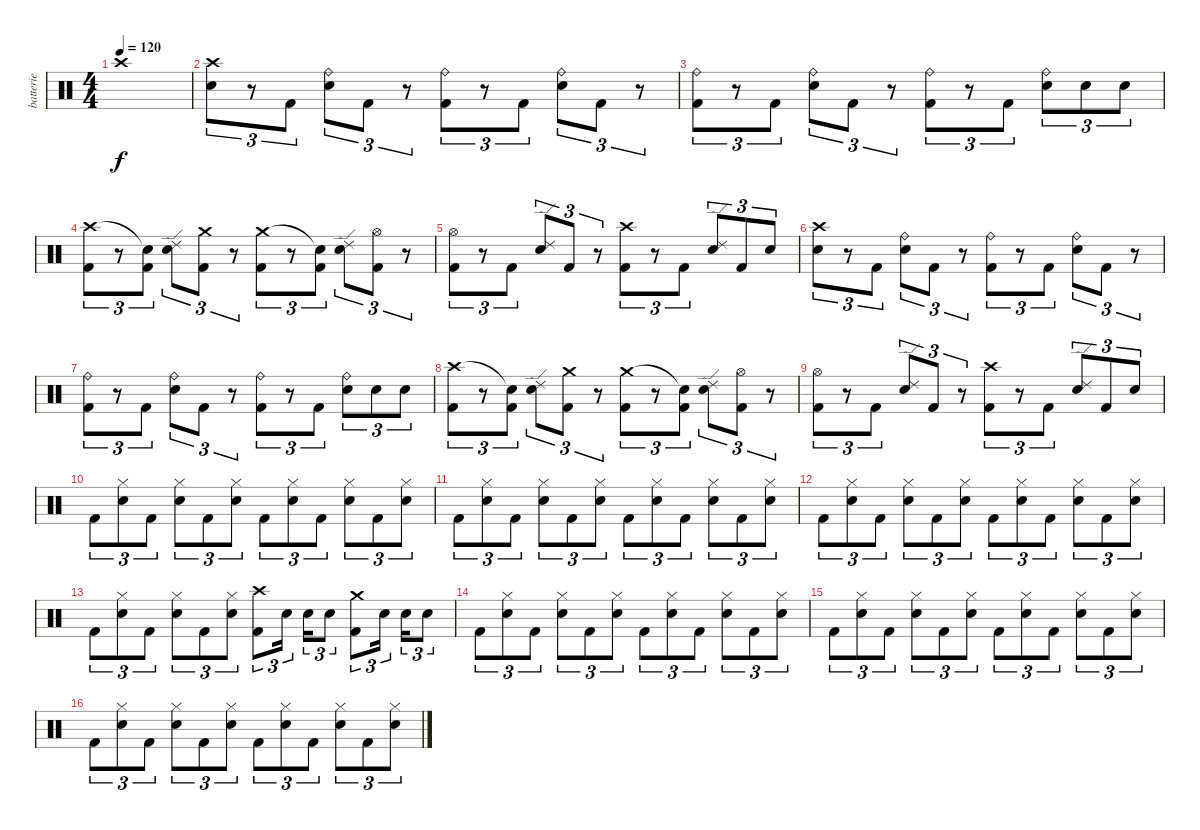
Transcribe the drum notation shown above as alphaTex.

\track ("batterie" "batterie") {instrument percussion}
\staff {score}
\articulation defaults
\ts (4 4)
\tempo 120
\clef neutral
\ks c "Crash high (hit)".1{dy f}
|
("Crash high (hit)" "Snare (hit) 2").8{tu (3 2)} r.8{tu (3 2)} "Kick (hit) 2".8{tu (3 2)} ("Snare (hit) 2" "Ride (bell)").8{tu (3 2)} "Kick (hit) 2".8{tu (3 2)} r.8{tu (3 2)} ("Kick (hit) 2" "Ride (bell)").8{tu (3 2)} r.8{tu (3 2)} "Kick (hit) 2".8{tu (3 2)} ("Snare (hit) 2" "Ride (bell)").8{tu (3 2)} "Kick (hit) 2".8{tu (3 2)} r.8{tu (3 2)} |
("Kick (hit) 2" "Ride (bell)").8{tu (3 2)} r.8{tu (3 2)} "Kick (hit) 2".8{tu (3 2)} ("Snare (hit) 2" "Ride (bell)").8{tu (3 2)} "Kick (hit) 2".8{tu (3 2)} r.8{tu (3 2)} ("Kick (hit) 2" "Ride (bell)").8{tu (3 2)} r.8{tu (3 2)} "Kick (hit) 2".8{tu (3 2)} ("Snare (hit) 2" "Ride (bell)").8{tu (3 2)} "Snare (hit) 2".8{tu (3 2)} "Snare (hit) 2".8{tu (3 2)} |
("Crash high (hit)" "Kick (hit) 2").8{tu (3 2)} r.8{tu (3 2)} ("Snare (hit)"{t} "Kick (hit) 2").8{tu (3 2)} ("Snare (hit) 2" "Ride (edge) 2").8{tu (3 2)} ("Crash medium (hit)" "Kick (hit) 2").8{tu (3 2)} r.8{tu (3 2)} ("Crash medium (hit)" "Kick (hit) 2").8{tu (3 2)} r.8{tu (3 2)} ("Snare (hit)"{t} "Kick (hit) 2").8{tu (3 2)} ("Snare (hit) 2" "Ride (edge) 2").8{tu (3 2)} ("Kick (hit) 2" "Hi-Hat (open)").8{tu (3 2)} r.8{tu (3 2)} |
("Kick (hit) 2" "Hi-Hat (open)").8{tu (3 2)} r.8{tu (3 2)} "Kick (hit) 2".8{tu (3 2)} ("Snare (hit) 2" "Ride (edge) 2").8{tu (3 2)} "Kick (hit) 2".8{tu (3 2)} r.8{tu (3 2)} ("Kick (hit) 2" "Crash high (hit)").8{tu (3 2)} r.8{tu (3 2)} "Kick (hit) 2".8{tu (3 2)} ("Snare (hit) 2" "Ride (edge) 2").8{tu (3 2)} "Kick (hit) 2".8{tu (3 2)} "Snare (hit) 2".8{tu (3 2)} |
("Crash high (hit)" "Snare (hit) 2").8{tu (3 2)} r.8{tu (3 2)} "Kick (hit) 2".8{tu (3 2)} ("Snare (hit) 2" "Ride (bell)").8{tu (3 2)} "Kick (hit) 2".8{tu (3 2)} r.8{tu (3 2)} ("Kick (hit) 2" "Ride (bell)").8{tu (3 2)} r.8{tu (3 2)} "Kick (hit) 2".8{tu (3 2)} ("Snare (hit) 2" "Ride (bell)").8{tu (3 2)} "Kick (hit) 2".8{tu (3 2)} r.8{tu (3 2)} |
("Kick (hit) 2" "Ride (bell)").8{tu (3 2)} r.8{tu (3 2)} "Kick (hit) 2".8{tu (3 2)} ("Snare (hit) 2" "Ride (bell)").8{tu (3 2)} "Kick (hit) 2".8{tu (3 2)} r.8{tu (3 2)} ("Kick (hit) 2" "Ride (bell)").8{tu (3 2)} r.8{tu (3 2)} "Kick (hit) 2".8{tu (3 2)} ("Snare (hit) 2" "Ride (bell)").8{tu (3 2)} "Snare (hit) 2".8{tu (3 2)} "Snare (hit) 2".8{tu (3 2)} |
("Crash high (hit)" "Kick (hit) 2").8{tu (3 2)} r.8{tu (3 2)} ("Snare (hit)"{t} "Kick (hit) 2").8{tu (3 2)} ("Snare (hit) 2" "Ride (edge) 2").8{tu (3 2)} ("Crash medium (hit)" "Kick (hit) 2").8{tu (3 2)} r.8{tu (3 2)} ("Crash medium (hit)" "Kick (hit) 2").8{tu (3 2)} r.8{tu (3 2)} ("Snare (hit)"{t} "Kick (hit) 2").8{tu (3 2)} ("Snare (hit) 2" "Ride (edge) 2").8{tu (3 2)} ("Kick (hit) 2" "Hi-Hat (open)").8{tu (3 2)} r.8{tu (3 2)} |
("Kick (hit) 2" "Hi-Hat (open)").8{tu (3 2)} r.8{tu (3 2)} "Kick (hit) 2".8{tu (3 2)} ("Snare (hit) 2" "Ride (edge) 2").8{tu (3 2)} "Kick (hit) 2".8{tu (3 2)} r.8{tu (3 2)} ("Kick (hit) 2" "Crash high (hit)").8{tu (3 2)} r.8{tu (3 2)} "Kick (hit) 2".8{tu (3 2)} ("Snare (hit) 2" "Ride (edge) 2").8{tu (3 2)} "Kick (hit) 2".8{tu (3 2)} "Snare (hit) 2".8{tu (3 2)} |
"Kick (hit) 2".8{tu (3 2)} ("Snare (hit) 2" "Hi-Hat (closed)").8{tu (3 2)} "Kick (hit) 2".8{tu (3 2)} ("Snare (hit) 2" "Hi-Hat (closed)").8{tu (3 2)} "Kick (hit) 2".8{tu (3 2)} ("Snare (hit) 2" "Hi-Hat (closed)").8{tu (3 2)} "Kick (hit) 2".8{tu (3 2)} ("Snare (hit) 2" "Hi-Hat (closed)").8{tu (3 2)} "Kick (hit) 2".8{tu (3 2)} ("Snare (hit) 2" "Hi-Hat (closed)").8{tu (3 2)} "Kick (hit) 2".8{tu (3 2)} ("Snare (hit) 2" "Hi-Hat (closed)").8{tu (3 2)} |
"Kick (hit) 2".8{tu (3 2)} ("Snare (hit) 2" "Hi-Hat (closed)").8{tu (3 2)} "Kick (hit) 2".8{tu (3 2)} ("Snare (hit) 2" "Hi-Hat (closed)").8{tu (3 2)} "Kick (hit) 2".8{tu (3 2)} ("Snare (hit) 2" "Hi-Hat (closed)").8{tu (3 2)} "Kick (hit) 2".8{tu (3 2)} ("Snare (hit) 2" "Hi-Hat (closed)").8{tu (3 2)} "Kick (hit) 2".8{tu (3 2)} ("Snare (hit) 2" "Hi-Hat (closed)").8{tu (3 2)} "Kick (hit) 2".8{tu (3 2)} ("Snare (hit) 2" "Hi-Hat (closed)").8{tu (3 2)} |
"Kick (hit) 2".8{tu (3 2)} ("Snare (hit) 2" "Hi-Hat (closed)").8{tu (3 2)} "Kick (hit) 2".8{tu (3 2)} ("Snare (hit) 2" "Hi-Hat (closed)").8{tu (3 2)} "Kick (hit) 2".8{tu (3 2)} ("Snare (hit) 2" "Hi-Hat (closed)").8{tu (3 2)} "Kick (hit) 2".8{tu (3 2)} ("Snare (hit) 2" "Hi-Hat (closed)").8{tu (3 2)} "Kick (hit) 2".8{tu (3 2)} ("Snare (hit) 2" "Hi-Hat (closed)").8{tu (3 2)} "Kick (hit) 2".8{tu (3 2)} ("Snare (hit) 2" "Hi-Hat (closed)").8{tu (3 2)} |
"Kick (hit) 2".8{tu (3 2)} ("Snare (hit) 2" "Hi-Hat (closed)").8{tu (3 2)} "Kick (hit) 2".8{tu (3 2)} ("Snare (hit) 2" "Hi-Hat (closed)").8{tu (3 2)} "Kick (hit) 2".8{tu (3 2)} ("Snare (hit) 2" "Hi-Hat (closed)").8{tu (3 2)} ("Crash high (hit)" "Kick (hit) 2").8{tu (3 2)} "Snare (hit) 2".16{tu (3 2)} "Snare (hit) 2".16{tu (3 2)} "Snare (hit) 2".8{tu (3 2)} ("Crash medium (hit)" "Kick (hit) 2").8{tu (3 2)} "Snare (hit) 2".16{tu (3 2)} "Snare (hit) 2".16{tu (3 2)} "Snare (hit) 2".8{tu (3 2)} |
"Kick (hit) 2".8{tu (3 2)} ("Snare (hit) 2" "Hi-Hat (closed)").8{tu (3 2)} "Kick (hit) 2".8{tu (3 2)} ("Snare (hit) 2" "Hi-Hat (closed)").8{tu (3 2)} "Kick (hit) 2".8{tu (3 2)} ("Snare (hit) 2" "Hi-Hat (closed)").8{tu (3 2)} "Kick (hit) 2".8{tu (3 2)} ("Snare (hit) 2" "Hi-Hat (closed)").8{tu (3 2)} "Kick (hit) 2".8{tu (3 2)} ("Snare (hit) 2" "Hi-Hat (closed)").8{tu (3 2)} "Kick (hit) 2".8{tu (3 2)} ("Snare (hit) 2" "Hi-Hat (closed)").8{tu (3 2)} |
"Kick (hit) 2".8{tu (3 2)} ("Snare (hit) 2" "Hi-Hat (closed)").8{tu (3 2)} "Kick (hit) 2".8{tu (3 2)} ("Snare (hit) 2" "Hi-Hat (closed)").8{tu (3 2)} "Kick (hit) 2".8{tu (3 2)} ("Snare (hit) 2" "Hi-Hat (closed)").8{tu (3 2)} "Kick (hit) 2".8{tu (3 2)} ("Snare (hit) 2" "Hi-Hat (closed)").8{tu (3 2)} "Kick (hit) 2".8{tu (3 2)} ("Snare (hit) 2" "Hi-Hat (closed)").8{tu (3 2)} "Kick (hit) 2".8{tu (3 2)} ("Snare (hit) 2" "Hi-Hat (closed)").8{tu (3 2)} |
"Kick (hit) 2".8{tu (3 2)} ("Snare (hit) 2" "Hi-Hat (closed)").8{tu (3 2)} "Kick (hit) 2".8{tu (3 2)} ("Snare (hit) 2" "Hi-Hat (closed)").8{tu (3 2)} "Kick (hit) 2".8{tu (3 2)} ("Snare (hit) 2" "Hi-Hat (closed)").8{tu (3 2)} "Kick (hit) 2".8{tu (3 2)} ("Snare (hit) 2" "Hi-Hat (closed)").8{tu (3 2)} "Kick (hit) 2".8{tu (3 2)} ("Snare (hit) 2" "Hi-Hat (closed)").8{tu (3 2)} "Kick (hit) 2".8{tu (3 2)} ("Snare (hit) 2" "Hi-Hat (closed)").8{tu (3 2)}
